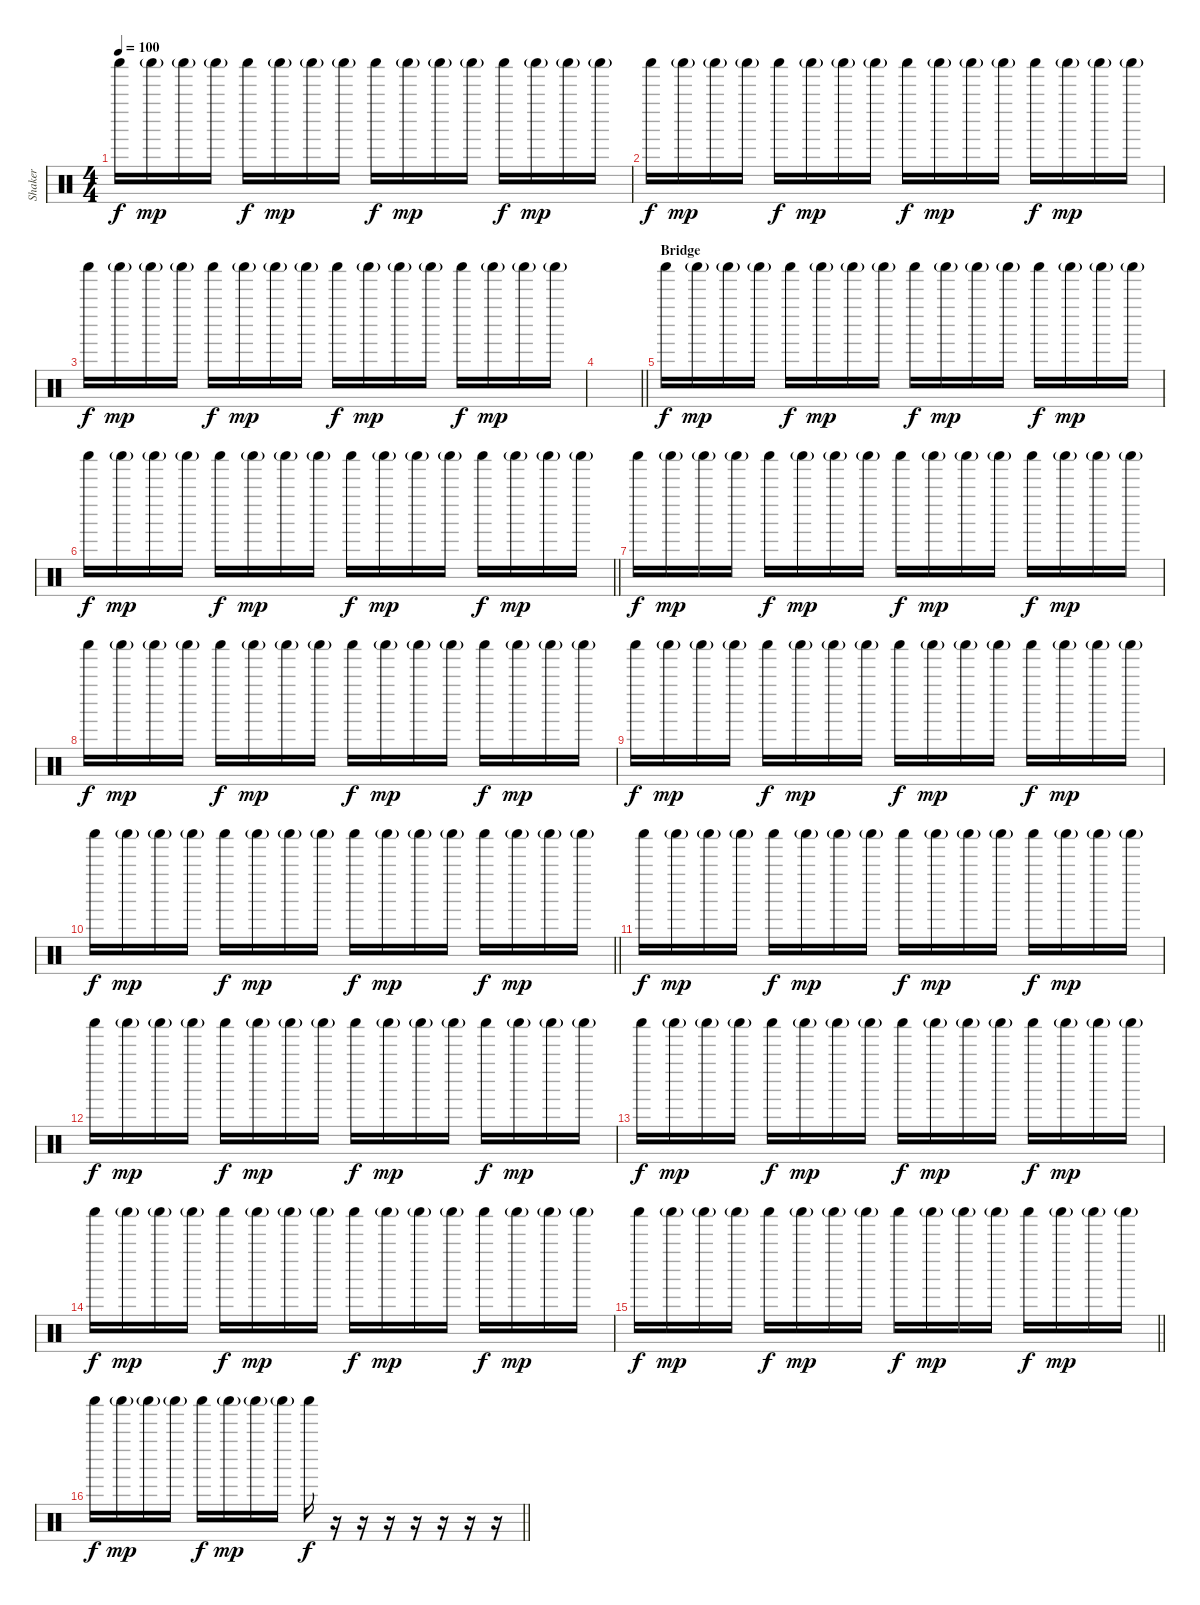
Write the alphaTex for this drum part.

\track ("Shaker" "Shaker") {instrument percussion}
\staff {score}
\articulation defaults
\ts (4 4)
\tempo 100
\clef neutral
\ks c "Shaker (hit)".16{dy f} "Shaker (hit)"{g}.16{dy mp} "Shaker (hit)"{g}.16 "Shaker (hit)"{g}.16 "Shaker (hit)".16{dy f} "Shaker (hit)"{g}.16{dy mp} "Shaker (hit)"{g}.16 "Shaker (hit)"{g}.16 "Shaker (hit)".16{dy f} "Shaker (hit)"{g}.16{dy mp} "Shaker (hit)"{g}.16 "Shaker (hit)"{g}.16 "Shaker (hit)".16{dy f} "Shaker (hit)"{g}.16{dy mp} "Shaker (hit)"{g}.16 "Shaker (hit)"{g}.16
|
"Shaker (hit)".16{dy f} "Shaker (hit)"{g}.16{dy mp} "Shaker (hit)"{g}.16 "Shaker (hit)"{g}.16 "Shaker (hit)".16{dy f} "Shaker (hit)"{g}.16{dy mp} "Shaker (hit)"{g}.16 "Shaker (hit)"{g}.16 "Shaker (hit)".16{dy f} "Shaker (hit)"{g}.16{dy mp} "Shaker (hit)"{g}.16 "Shaker (hit)"{g}.16 "Shaker (hit)".16{dy f} "Shaker (hit)"{g}.16{dy mp} "Shaker (hit)"{g}.16 "Shaker (hit)"{g}.16 |
"Shaker (hit)".16{dy f} "Shaker (hit)"{g}.16{dy mp} "Shaker (hit)"{g}.16 "Shaker (hit)"{g}.16 "Shaker (hit)".16{dy f} "Shaker (hit)"{g}.16{dy mp} "Shaker (hit)"{g}.16 "Shaker (hit)"{g}.16 "Shaker (hit)".16{dy f} "Shaker (hit)"{g}.16{dy mp} "Shaker (hit)"{g}.16 "Shaker (hit)"{g}.16 "Shaker (hit)".16{dy f} "Shaker (hit)"{g}.16{dy mp} "Shaker (hit)"{g}.16 "Shaker (hit)"{g}.16 |
\barLineRight lightlight
|
\section ("" "Bridge")
"Shaker (hit)".16{dy f} "Shaker (hit)"{g}.16{dy mp} "Shaker (hit)"{g}.16 "Shaker (hit)"{g}.16 "Shaker (hit)".16{dy f} "Shaker (hit)"{g}.16{dy mp} "Shaker (hit)"{g}.16 "Shaker (hit)"{g}.16 "Shaker (hit)".16{dy f} "Shaker (hit)"{g}.16{dy mp} "Shaker (hit)"{g}.16 "Shaker (hit)"{g}.16 "Shaker (hit)".16{dy f} "Shaker (hit)"{g}.16{dy mp} "Shaker (hit)"{g}.16 "Shaker (hit)"{g}.16 |
\barLineRight lightlight "Shaker (hit)".16{dy f} "Shaker (hit)"{g}.16{dy mp} "Shaker (hit)"{g}.16 "Shaker (hit)"{g}.16 "Shaker (hit)".16{dy f} "Shaker (hit)"{g}.16{dy mp} "Shaker (hit)"{g}.16 "Shaker (hit)"{g}.16 "Shaker (hit)".16{dy f} "Shaker (hit)"{g}.16{dy mp} "Shaker (hit)"{g}.16 "Shaker (hit)"{g}.16 "Shaker (hit)".16{dy f} "Shaker (hit)"{g}.16{dy mp} "Shaker (hit)"{g}.16 "Shaker (hit)"{g}.16
|
"Shaker (hit)".16{dy f} "Shaker (hit)"{g}.16{dy mp} "Shaker (hit)"{g}.16 "Shaker (hit)"{g}.16 "Shaker (hit)".16{dy f} "Shaker (hit)"{g}.16{dy mp} "Shaker (hit)"{g}.16 "Shaker (hit)"{g}.16 "Shaker (hit)".16{dy f} "Shaker (hit)"{g}.16{dy mp} "Shaker (hit)"{g}.16 "Shaker (hit)"{g}.16 "Shaker (hit)".16{dy f} "Shaker (hit)"{g}.16{dy mp} "Shaker (hit)"{g}.16 "Shaker (hit)"{g}.16 |
"Shaker (hit)".16{dy f} "Shaker (hit)"{g}.16{dy mp} "Shaker (hit)"{g}.16 "Shaker (hit)"{g}.16 "Shaker (hit)".16{dy f} "Shaker (hit)"{g}.16{dy mp} "Shaker (hit)"{g}.16 "Shaker (hit)"{g}.16 "Shaker (hit)".16{dy f} "Shaker (hit)"{g}.16{dy mp} "Shaker (hit)"{g}.16 "Shaker (hit)"{g}.16 "Shaker (hit)".16{dy f} "Shaker (hit)"{g}.16{dy mp} "Shaker (hit)"{g}.16 "Shaker (hit)"{g}.16 |
"Shaker (hit)".16{dy f} "Shaker (hit)"{g}.16{dy mp} "Shaker (hit)"{g}.16 "Shaker (hit)"{g}.16 "Shaker (hit)".16{dy f} "Shaker (hit)"{g}.16{dy mp} "Shaker (hit)"{g}.16 "Shaker (hit)"{g}.16 "Shaker (hit)".16{dy f} "Shaker (hit)"{g}.16{dy mp} "Shaker (hit)"{g}.16 "Shaker (hit)"{g}.16 "Shaker (hit)".16{dy f} "Shaker (hit)"{g}.16{dy mp} "Shaker (hit)"{g}.16 "Shaker (hit)"{g}.16 |
\barLineRight lightlight "Shaker (hit)".16{dy f} "Shaker (hit)"{g}.16{dy mp} "Shaker (hit)"{g}.16 "Shaker (hit)"{g}.16 "Shaker (hit)".16{dy f} "Shaker (hit)"{g}.16{dy mp} "Shaker (hit)"{g}.16 "Shaker (hit)"{g}.16 "Shaker (hit)".16{dy f} "Shaker (hit)"{g}.16{dy mp} "Shaker (hit)"{g}.16 "Shaker (hit)"{g}.16 "Shaker (hit)".16{dy f} "Shaker (hit)"{g}.16{dy mp} "Shaker (hit)"{g}.16 "Shaker (hit)"{g}.16
|
"Shaker (hit)".16{dy f} "Shaker (hit)"{g}.16{dy mp} "Shaker (hit)"{g}.16 "Shaker (hit)"{g}.16 "Shaker (hit)".16{dy f} "Shaker (hit)"{g}.16{dy mp} "Shaker (hit)"{g}.16 "Shaker (hit)"{g}.16 "Shaker (hit)".16{dy f} "Shaker (hit)"{g}.16{dy mp} "Shaker (hit)"{g}.16 "Shaker (hit)"{g}.16 "Shaker (hit)".16{dy f} "Shaker (hit)"{g}.16{dy mp} "Shaker (hit)"{g}.16 "Shaker (hit)"{g}.16 |
"Shaker (hit)".16{dy f} "Shaker (hit)"{g}.16{dy mp} "Shaker (hit)"{g}.16 "Shaker (hit)"{g}.16 "Shaker (hit)".16{dy f} "Shaker (hit)"{g}.16{dy mp} "Shaker (hit)"{g}.16 "Shaker (hit)"{g}.16 "Shaker (hit)".16{dy f} "Shaker (hit)"{g}.16{dy mp} "Shaker (hit)"{g}.16 "Shaker (hit)"{g}.16 "Shaker (hit)".16{dy f} "Shaker (hit)"{g}.16{dy mp} "Shaker (hit)"{g}.16 "Shaker (hit)"{g}.16 |
"Shaker (hit)".16{dy f} "Shaker (hit)"{g}.16{dy mp} "Shaker (hit)"{g}.16 "Shaker (hit)"{g}.16 "Shaker (hit)".16{dy f} "Shaker (hit)"{g}.16{dy mp} "Shaker (hit)"{g}.16 "Shaker (hit)"{g}.16 "Shaker (hit)".16{dy f} "Shaker (hit)"{g}.16{dy mp} "Shaker (hit)"{g}.16 "Shaker (hit)"{g}.16 "Shaker (hit)".16{dy f} "Shaker (hit)"{g}.16{dy mp} "Shaker (hit)"{g}.16 "Shaker (hit)"{g}.16 |
"Shaker (hit)".16{dy f} "Shaker (hit)"{g}.16{dy mp} "Shaker (hit)"{g}.16 "Shaker (hit)"{g}.16 "Shaker (hit)".16{dy f} "Shaker (hit)"{g}.16{dy mp} "Shaker (hit)"{g}.16 "Shaker (hit)"{g}.16 "Shaker (hit)".16{dy f} "Shaker (hit)"{g}.16{dy mp} "Shaker (hit)"{g}.16 "Shaker (hit)"{g}.16 "Shaker (hit)".16{dy f} "Shaker (hit)"{g}.16{dy mp} "Shaker (hit)"{g}.16 "Shaker (hit)"{g}.16 |
\barLineRight lightlight "Shaker (hit)".16{dy f} "Shaker (hit)"{g}.16{dy mp} "Shaker (hit)"{g}.16 "Shaker (hit)"{g}.16 "Shaker (hit)".16{dy f} "Shaker (hit)"{g}.16{dy mp} "Shaker (hit)"{g}.16 "Shaker (hit)"{g}.16 "Shaker (hit)".16{dy f} "Shaker (hit)"{g}.16{dy mp} "Shaker (hit)"{g}.16 "Shaker (hit)"{g}.16 "Shaker (hit)".16{dy f} "Shaker (hit)"{g}.16{dy mp} "Shaker (hit)"{g}.16 "Shaker (hit)"{g}.16
|
\barLineRight lightlight "Shaker (hit)".16{dy f} "Shaker (hit)"{g}.16{dy mp} "Shaker (hit)"{g}.16 "Shaker (hit)"{g}.16 "Shaker (hit)".16{dy f} "Shaker (hit)"{g}.16{dy mp} "Shaker (hit)"{g}.16 "Shaker (hit)"{g}.16 "Shaker (hit)".16{dy f}
r.16 r.16 r.16 r.16 r.16 r.16 r.16
